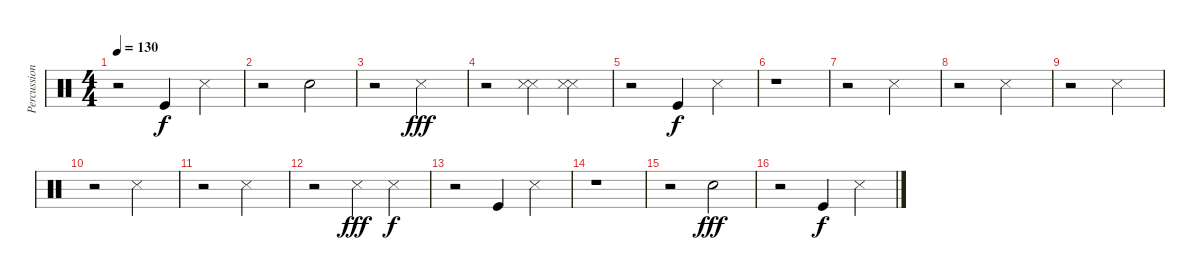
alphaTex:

\track ("Percussion" "Percussion") {instrument percussion}
\staff {score}
\articulation defaults
\ts (4 4)
\tempo 130
\clef neutral
\ks c
r.2{dy f} "Kick (hit)".4 "Snare (side stick) 3".4 |
r.2 "Snare (hit) 2".2 |
r.2 "Snare (side stick) 3".2{dy fff} |
r.2 ("Snare (side stick) 3" "Metronome (hit)").4 ("Snare (side stick) 3" "Snare (side stick) 3").4 |
r.2 "Kick (hit)".4{dy f} "Snare (side stick) 3".4 |
r.1 |
r.2 "Snare (side stick) 3".2 |
r.2 "Snare (side stick) 3".2 |
r.2 "Snare (side stick) 3".2 |
r.2 "Snare (side stick) 3".2 |
r.2 "Snare (side stick) 3".2 |
r.2 "Snare (side stick) 3".4{dy fff} "Snare (side stick) 3".4{dy f} |
r.2 "Kick (hit)".4 "Snare (side stick) 3".4 |
r.1 |
r.2 "Hand Clap (hit)".2{dy fff} |
r.2 "Kick (hit)".4{dy f} "Snare (side stick) 3".4
